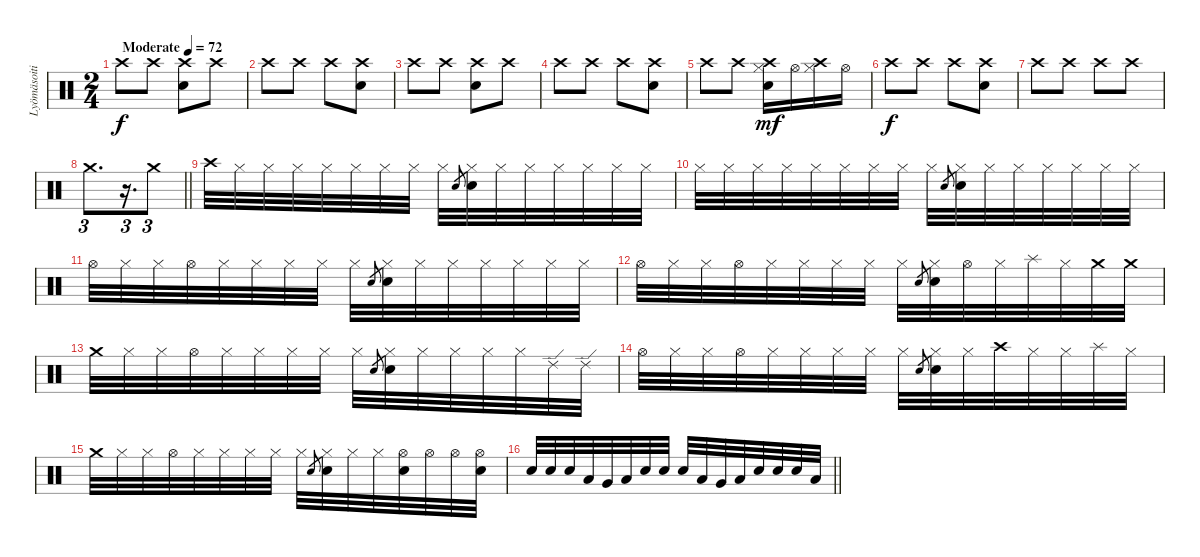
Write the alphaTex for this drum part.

\track ("Lyömäsoitin" "Lyömäsoiti") {instrument percussion}
\staff {score}
\articulation defaults
\ts (2 4)
\tempo (72 "Moderate")
\clef neutral
\ks c "Crash high (hit)".8{dy f} "Crash high (hit)".8
("Crash high (hit)" "Snare (hit) 2").8 "Crash high (hit)".8 |
"Crash high (hit)".8 "Crash high (hit)".8 "Crash high (hit)".8 ("Crash high (hit)" "Snare (hit) 2").8 |
"Crash high (hit)".8 "Crash high (hit)".8 ("Crash high (hit)" "Snare (hit) 2").8 "Crash high (hit)".8 |
"Crash high (hit)".8 "Crash high (hit)".8 "Crash high (hit)".8 ("Crash high (hit)" "Snare (hit) 2").8 |
"Crash high (hit)".8 "Crash high (hit)".8 ("Crash high (hit)" "Hi-Hat (closed)" "Snare (hit) 2").16{dy mf} "Hi-Hat (open)".16 ("Crash high (hit)" "Hi-Hat (closed)").16 "Hi-Hat (open)".16 |
"Crash high (hit)".8{dy f} "Crash high (hit)".8 "Crash high (hit)".8 ("Crash high (hit)" "Snare (hit) 2").8 |
"Crash high (hit)".8 "Crash high (hit)".8 "Crash high (hit)".8 "Crash high (hit)".8 |
\barLineRight lightlight "Crash medium (hit)".8{d tu (3 2)}
r.16{d tu (3 2)} "Crash medium (hit)".8{tu (3 2)} |
"Crash high (hit)".32 "Hi-Hat (closed)".32 "Hi-Hat (closed)".32 "Hi-Hat (closed)".32 "Hi-Hat (closed)".32 "Hi-Hat (closed)".32 "Hi-Hat (closed)".32 "Hi-Hat (closed)".32 "Hi-Hat (closed)".32 "Snare (hit) 2".8{gr} ("Hi-Hat (closed)" "Snare (hit) 2").32 "Hi-Hat (closed)".32 "Hi-Hat (closed)".32 "Hi-Hat (closed)".32 "Hi-Hat (closed)".32 "Hi-Hat (closed)".32 "Hi-Hat (closed)".32 |
"Hi-Hat (closed)".32 "Hi-Hat (closed)".32 "Hi-Hat (closed)".32 "Hi-Hat (closed)".32 "Hi-Hat (closed)".32 "Hi-Hat (closed)".32 "Hi-Hat (closed)".32 "Hi-Hat (closed)".32 "Hi-Hat (closed)".32 "Snare (hit) 2".8{gr} ("Hi-Hat (closed)" "Snare (hit) 2").32 "Hi-Hat (closed)".32 "Hi-Hat (closed)".32 "Hi-Hat (closed)".32 "Hi-Hat (closed)".32 "Hi-Hat (closed)".32 "Hi-Hat (closed)".32 |
"Hi-Hat (open)".32 "Hi-Hat (closed)".32 "Hi-Hat (closed)".32 "Hi-Hat (open)".32 "Hi-Hat (closed)".32 "Hi-Hat (closed)".32 "Hi-Hat (closed)".32 "Hi-Hat (closed)".32 "Hi-Hat (closed)".32 "Snare (hit) 2".8{gr} ("Hi-Hat (closed)" "Snare (hit) 2").32 "Hi-Hat (closed)".32 "Hi-Hat (closed)".32 "Hi-Hat (closed)".32 "Hi-Hat (closed)".32 "Hi-Hat (closed)".32 "Hi-Hat (closed)".32 |
"Hi-Hat (open)".32 "Hi-Hat (closed)".32 "Hi-Hat (closed)".32 "Hi-Hat (open)".32 "Hi-Hat (closed)".32 "Hi-Hat (closed)".32 "Hi-Hat (closed)".32 "Hi-Hat (closed)".32 "Hi-Hat (closed)".32 "Snare (hit) 2".8{gr} ("Hi-Hat (closed)" "Snare (hit) 2").32 "Hi-Hat (open)".32 "Hi-Hat (closed)".32 "Splash (hit)".32 "Hi-Hat (closed)".32 "Crash medium (hit)".32 "Crash medium (hit)".32 |
"Crash medium (hit)".32 "Hi-Hat (closed)".32 "Hi-Hat (closed)".32 "Hi-Hat (open)".32 "Hi-Hat (closed)".32 "Hi-Hat (closed)".32 "Hi-Hat (closed)".32 "Hi-Hat (closed)".32 "Hi-Hat (closed)".32 "Snare (hit) 2".8{gr} ("Hi-Hat (closed)" "Snare (hit) 2").32 "Hi-Hat (closed)".32 "Hi-Hat (closed)".32 "Hi-Hat (closed)".32 "Hi-Hat (closed)".32 "Ride (edge) 2".32 "Ride (edge) 2".32 |
"Hi-Hat (open)".32 "Hi-Hat (closed)".32 "Hi-Hat (closed)".32 "Hi-Hat (open)".32 "Hi-Hat (closed)".32 "Hi-Hat (closed)".32 "Hi-Hat (closed)".32 "Hi-Hat (closed)".32 "Hi-Hat (closed)".32 "Snare (hit) 2".8{gr} ("Hi-Hat (closed)" "Snare (hit) 2").32 "Hi-Hat (closed)".32 "Crash high (hit)".32 "Hi-Hat (closed)".32 "Hi-Hat (closed)".32 "Splash (hit)".32 "Hi-Hat (closed)".32 |
"Crash medium (hit)".32 "Hi-Hat (closed)".32 "Hi-Hat (closed)".32 "Hi-Hat (open)".32 "Hi-Hat (closed)".32 "Hi-Hat (closed)".32 "Hi-Hat (closed)".32 "Hi-Hat (closed)".32 "Hi-Hat (closed)".32 "Snare (hit) 2".8{gr} ("Hi-Hat (closed)" "Snare (hit) 2").32 "Hi-Hat (closed)".32 "Hi-Hat (closed)".32 ("Hi-Hat (open)" "Snare (hit) 2").32 "Hi-Hat (open)".32 "Hi-Hat (open)".32 ("Hi-Hat (open)" "Snare (hit) 2").32 |
\barLineRight lightlight "Snare (hit) 2".32 "Snare (hit) 2".32 "Snare (hit) 2".32 "Low Tom (hit)".32 "Very Low Tom (hit)".32 "Low Tom (hit)".32 "Snare (hit) 2".32 "Snare (hit) 2".32 "Snare (hit) 2".32 "Low Tom (hit)".32 "Very Low Tom (hit)".32 "Low Tom (hit)".32 "Snare (hit) 2".32 "Snare (hit) 2".32 "Snare (hit) 2".32 "Low Tom (hit)".32
